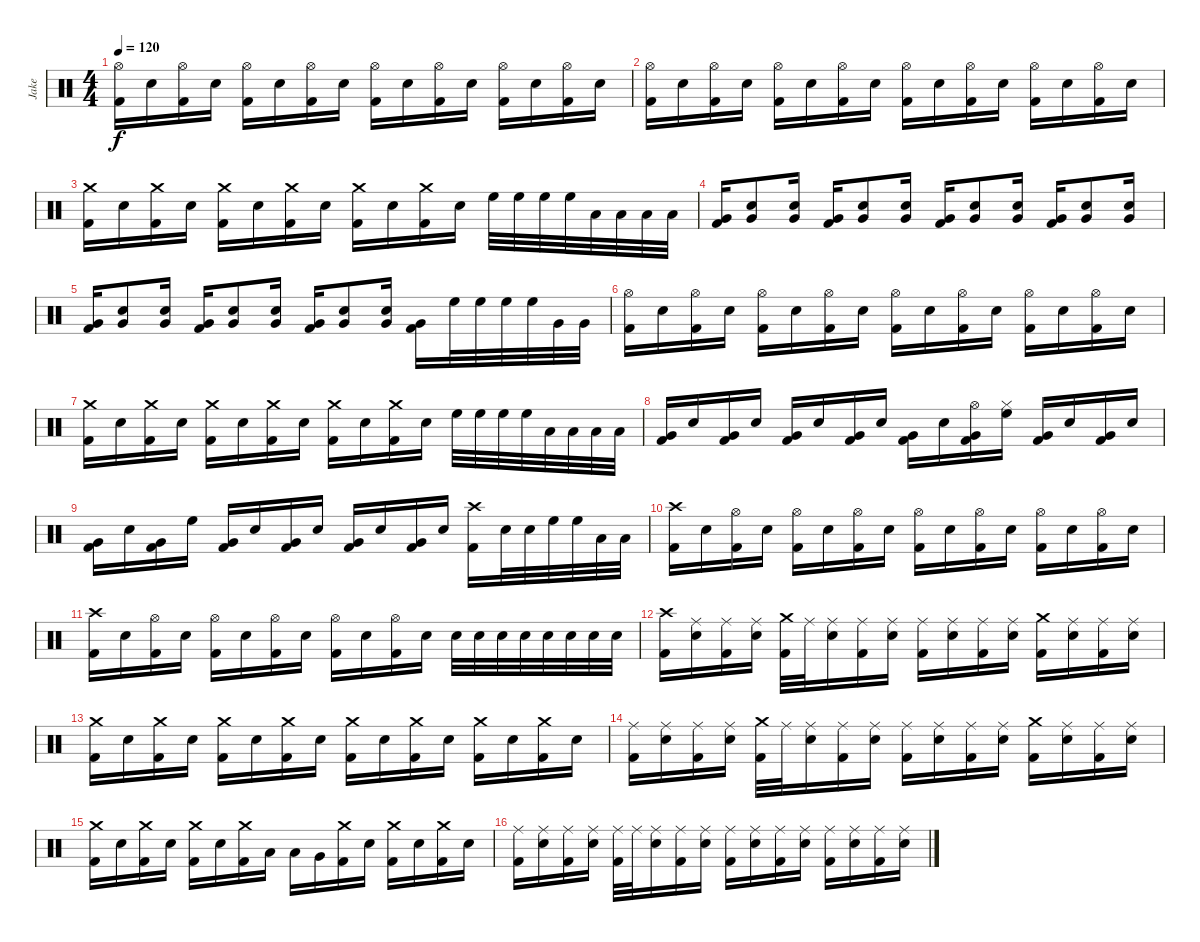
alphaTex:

\track ("Jake" "Jake") {instrument percussion}
\staff {score}
\articulation defaults
\ts (4 4)
\tempo 120
\clef neutral
\ks c
("Hi-Hat (open)" "Kick (hit) 2").16{dy f} "Snare (hit) 2".16 ("Hi-Hat (open)" "Kick (hit) 2").16 "Snare (hit) 2".16 ("Hi-Hat (open)" "Kick (hit) 2").16 "Snare (hit) 2".16 ("Hi-Hat (open)" "Kick (hit) 2").16 "Snare (hit) 2".16 ("Hi-Hat (open)" "Kick (hit) 2").16 "Snare (hit) 2".16 ("Hi-Hat (open)" "Kick (hit) 2").16 "Snare (hit) 2".16 ("Hi-Hat (open)" "Kick (hit) 2").16 "Snare (hit) 2".16 ("Hi-Hat (open)" "Kick (hit) 2").16 "Snare (hit) 2".16 |
("Hi-Hat (open)" "Kick (hit) 2").16 "Snare (hit) 2".16 ("Hi-Hat (open)" "Kick (hit) 2").16 "Snare (hit) 2".16 ("Hi-Hat (open)" "Kick (hit) 2").16 "Snare (hit) 2".16 ("Hi-Hat (open)" "Kick (hit) 2").16 "Snare (hit) 2".16 ("Hi-Hat (open)" "Kick (hit) 2").16 "Snare (hit) 2".16 ("Hi-Hat (open)" "Kick (hit) 2").16 "Snare (hit) 2".16 ("Hi-Hat (open)" "Kick (hit) 2").16 "Snare (hit) 2".16 ("Hi-Hat (open)" "Kick (hit) 2").16 "Snare (hit) 2".16 |
("Crash medium (hit)" "Kick (hit) 2").16 "Snare (hit) 2".16 ("Crash medium (hit)" "Kick (hit) 2").16 "Snare (hit) 2".16 ("Crash medium (hit)" "Kick (hit) 2").16 "Snare (hit) 2".16 ("Crash medium (hit)" "Kick (hit) 2").16 "Snare (hit) 2".16 ("Crash medium (hit)" "Kick (hit) 2").16 "Snare (hit) 2".16 ("Crash medium (hit)" "Kick (hit) 2").16 "Snare (hit) 2".16 "High Floor Tom (hit)".32 "High Floor Tom (hit)".32 "High Floor Tom (hit)".32 "High Floor Tom (hit)".32 "Low Tom (hit)".32 "Low Tom (hit)".32 "Low Tom (hit)".32 "Low Tom (hit)".32 |
("Very Low Tom (hit)" "Kick (hit) 2").16 ("Very Low Tom (hit)" "Snare (hit) 2").8 ("Very Low Tom (hit)" "Snare (hit) 2").16 ("Very Low Tom (hit)" "Kick (hit) 2").16 ("Very Low Tom (hit)" "Snare (hit) 2").8 ("Very Low Tom (hit)" "Snare (hit) 2").16 ("Very Low Tom (hit)" "Kick (hit) 2").16 ("Very Low Tom (hit)" "Snare (hit) 2").8 ("Very Low Tom (hit)" "Snare (hit) 2").16 ("Very Low Tom (hit)" "Kick (hit) 2").16 ("Very Low Tom (hit)" "Snare (hit) 2").8 ("Very Low Tom (hit)" "Snare (hit) 2").16 |
("Very Low Tom (hit)" "Kick (hit) 2").16 ("Very Low Tom (hit)" "Snare (hit) 2").8 ("Very Low Tom (hit)" "Snare (hit) 2").16 ("Very Low Tom (hit)" "Kick (hit) 2").16 ("Very Low Tom (hit)" "Snare (hit) 2").8 ("Very Low Tom (hit)" "Snare (hit) 2").16 ("Very Low Tom (hit)" "Kick (hit) 2").16 ("Very Low Tom (hit)" "Snare (hit) 2").8 ("Very Low Tom (hit)" "Snare (hit) 2").16 ("Very Low Tom (hit)" "Kick (hit) 2").16 "High Floor Tom (hit)".32 "High Floor Tom (hit)".32 "High Floor Tom (hit)".32 "High Floor Tom (hit)".32 "Very Low Tom (hit)".32 "Very Low Tom (hit)".32 |
("Hi-Hat (open)" "Kick (hit) 2").16 "Snare (hit) 2".16 ("Hi-Hat (open)" "Kick (hit) 2").16 "Snare (hit) 2".16 ("Hi-Hat (open)" "Kick (hit) 2").16 "Snare (hit) 2".16 ("Hi-Hat (open)" "Kick (hit) 2").16 "Snare (hit) 2".16 ("Hi-Hat (open)" "Kick (hit) 2").16 "Snare (hit) 2".16 ("Hi-Hat (open)" "Kick (hit) 2").16 "Snare (hit) 2".16 ("Hi-Hat (open)" "Kick (hit) 2").16 "Snare (hit) 2".16 ("Hi-Hat (open)" "Kick (hit) 2").16 "Snare (hit) 2".16 |
("Crash medium (hit)" "Kick (hit) 2").16 "Snare (hit) 2".16 ("Crash medium (hit)" "Kick (hit) 2").16 "Snare (hit) 2".16 ("Crash medium (hit)" "Kick (hit) 2").16 "Snare (hit) 2".16 ("Crash medium (hit)" "Kick (hit) 2").16 "Snare (hit) 2".16 ("Crash medium (hit)" "Kick (hit) 2").16 "Snare (hit) 2".16 ("Crash medium (hit)" "Kick (hit) 2").16 "Snare (hit) 2".16 "High Floor Tom (hit)".32 "High Floor Tom (hit)".32 "High Floor Tom (hit)".32 "High Floor Tom (hit)".32 "Low Tom (hit)".32 "Low Tom (hit)".32 "Low Tom (hit)".32 "Low Tom (hit)".32 |
("Very Low Tom (hit)" "Kick (hit) 2").16 "Snare (hit) 2".16 ("Very Low Tom (hit)" "Kick (hit) 2").16 "Snare (hit) 2".16 ("Very Low Tom (hit)" "Kick (hit) 2").16 "Snare (hit) 2".16 ("Very Low Tom (hit)" "Kick (hit) 2").16 "Snare (hit) 2".16 ("Very Low Tom (hit)" "Kick (hit) 2").16 "Snare (hit) 2".16 ("Hi-Hat (open)" "Very Low Tom (hit)" "Kick (hit) 2").16 ("Hi-Hat (closed)" "High Floor Tom (hit)").16 ("Very Low Tom (hit)" "Kick (hit) 2").16 "Snare (hit) 2".16 ("Very Low Tom (hit)" "Kick (hit) 2").16 "Snare (hit) 2".16 |
("Very Low Tom (hit)" "Kick (hit) 2").16 "Snare (hit) 2".16 ("Very Low Tom (hit)" "Kick (hit) 2").16 "High Floor Tom (hit)".16 ("Very Low Tom (hit)" "Kick (hit) 2").16 "Snare (hit) 2".16 ("Very Low Tom (hit)" "Kick (hit) 2").16 "Snare (hit) 2".16 ("Very Low Tom (hit)" "Kick (hit) 2").16 "Snare (hit) 2".16 ("Very Low Tom (hit)" "Kick (hit) 2").16 "Snare (hit) 2".16 ("Crash high (hit)" "Kick (hit) 2").16 "Snare (hit) 2".32 "Snare (hit) 2".32 "High Floor Tom (hit)".32 "High Floor Tom (hit)".32 "Low Tom (hit)".32 "Low Tom (hit)".32 |
("Crash high (hit)" "Kick (hit) 2").16 "Snare (hit) 2".16 ("Hi-Hat (open)" "Kick (hit) 2").16 "Snare (hit) 2".16 ("Hi-Hat (open)" "Kick (hit) 2").16 "Snare (hit) 2".16 ("Hi-Hat (open)" "Kick (hit) 2").16 "Snare (hit) 2".16 ("Hi-Hat (open)" "Kick (hit) 2").16 "Snare (hit) 2".16 ("Hi-Hat (open)" "Kick (hit) 2").16 "Snare (hit) 2".16 ("Hi-Hat (open)" "Kick (hit) 2").16 "Snare (hit) 2".16 ("Hi-Hat (open)" "Kick (hit) 2").16 "Snare (hit) 2".16 |
("Crash high (hit)" "Kick (hit) 2").16 "Snare (hit) 2".16 ("Hi-Hat (open)" "Kick (hit) 2").16 "Snare (hit) 2".16 ("Hi-Hat (open)" "Kick (hit) 2").16 "Snare (hit) 2".16 ("Hi-Hat (open)" "Kick (hit) 2").16 "Snare (hit) 2".16 ("Hi-Hat (open)" "Kick (hit) 2").16 "Snare (hit) 2".16 ("Hi-Hat (open)" "Kick (hit) 2").16 "Snare (hit) 2".16 "Snare (hit) 2".32 "Snare (hit) 2".32 "Snare (hit) 2".32 "Snare (hit) 2".32 "Snare (hit) 2".32 "Snare (hit) 2".32 "Snare (hit) 2".32 "Snare (hit) 2".32 |
("Crash high (hit)" "Kick (hit) 2").16 ("Ride (middle)" "Snare (hit) 2").16 ("Ride (middle)" "Kick (hit) 2").16 ("Ride (middle)" "Snare (hit) 2").16 ("Crash medium (hit)" "Kick (hit) 2").32 "Ride (middle)".32 ("Ride (middle)" "Snare (hit) 2").16 ("Ride (middle)" "Kick (hit) 2").16 ("Ride (middle)" "Snare (hit) 2").16 ("Ride (middle)" "Kick (hit) 2").16 ("Ride (middle)" "Snare (hit) 2").16 ("Ride (middle)" "Kick (hit) 2").16 ("Ride (middle)" "Snare (hit) 2").16 ("Crash medium (hit)" "Kick (hit) 2").16 ("Ride (middle)" "Snare (hit) 2").16 ("Ride (middle)" "Kick (hit) 2").16 ("Ride (middle)" "Snare (hit) 2").16 |
("Crash medium (hit)" "Kick (hit) 2").16 "Snare (hit) 2".16 ("Crash medium (hit)" "Kick (hit) 2").16 "Snare (hit) 2".16 ("Crash medium (hit)" "Kick (hit) 2").16 "Snare (hit) 2".16 ("Crash medium (hit)" "Kick (hit) 2").16 "Snare (hit) 2".16 ("Crash medium (hit)" "Kick (hit) 2").16 "Snare (hit) 2".16 ("Crash medium (hit)" "Kick (hit) 2").16 "Snare (hit) 2".16 ("Crash medium (hit)" "Kick (hit) 2").16 "Snare (hit) 2".16 ("Crash medium (hit)" "Kick (hit) 2").16 "Snare (hit) 2".16 |
("Ride (middle)" "Kick (hit) 2").16 ("Ride (middle)" "Snare (hit) 2").16 ("Ride (middle)" "Kick (hit) 2").16 ("Ride (middle)" "Snare (hit) 2").16 ("Crash medium (hit)" "Kick (hit) 2").32 "Ride (middle)".32 ("Ride (middle)" "Snare (hit) 2").16 ("Ride (middle)" "Kick (hit) 2").16 ("Ride (middle)" "Snare (hit) 2").16 ("Ride (middle)" "Kick (hit) 2").16 ("Ride (middle)" "Snare (hit) 2").16 ("Ride (middle)" "Kick (hit) 2").16 ("Ride (middle)" "Snare (hit) 2").16 ("Crash medium (hit)" "Kick (hit) 2").16 ("Ride (middle)" "Snare (hit) 2").16 ("Ride (middle)" "Kick (hit) 2").16 ("Ride (middle)" "Snare (hit) 2").16 |
("Crash medium (hit)" "Kick (hit) 2").16 "Snare (hit) 2".16 ("Crash medium (hit)" "Kick (hit) 2").16 "Snare (hit) 2".16 ("Crash medium (hit)" "Kick (hit) 2").16 "Snare (hit) 2".16 ("Crash medium (hit)" "Kick (hit) 2").16 "Low Tom (hit)".16 "Low Tom (hit)".16 "Very Low Tom (hit)".16 ("Crash medium (hit)" "Kick (hit) 2").16 "Snare (hit) 2".16 ("Crash medium (hit)" "Kick (hit) 2").16 "Snare (hit) 2".16 ("Crash medium (hit)" "Kick (hit) 2").16 "Snare (hit) 2".16 |
("Ride (middle)" "Kick (hit) 2").16 ("Ride (middle)" "Snare (hit) 2").16 ("Ride (middle)" "Kick (hit) 2").16 ("Ride (middle)" "Snare (hit) 2").16 ("Ride (middle)" "Kick (hit) 2").32 "Ride (middle)".32 ("Ride (middle)" "Snare (hit) 2").16 ("Ride (middle)" "Kick (hit) 2").16 ("Ride (middle)" "Snare (hit) 2").16 ("Ride (middle)" "Kick (hit) 2").16 ("Ride (middle)" "Snare (hit) 2").16 ("Ride (middle)" "Kick (hit) 2").16 ("Ride (middle)" "Snare (hit) 2").16 ("Ride (middle)" "Kick (hit) 2").16 ("Ride (middle)" "Snare (hit) 2").16 ("Ride (middle)" "Kick (hit) 2").16 ("Ride (middle)" "Snare (hit) 2").16
